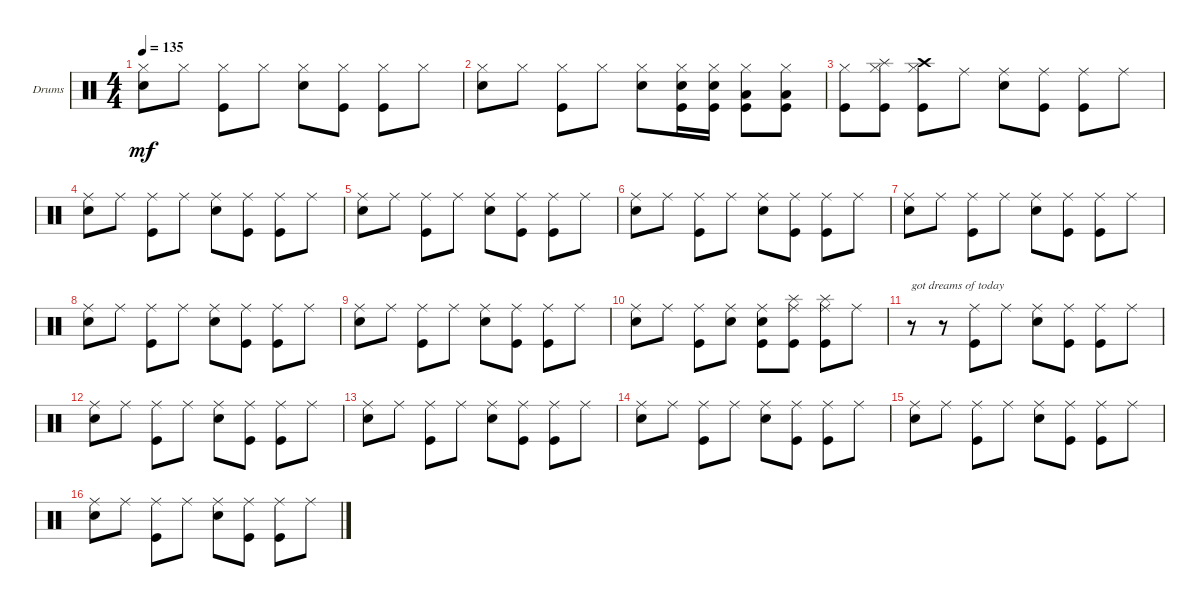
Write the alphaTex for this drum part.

\bracketExtendMode groupsimilarinstruments
\firstSystemTrackNameOrientation horizontal
\otherSystemsTrackNameOrientation horizontal
\track ("Drumkit" "Drums") {instrument percussion}
\staff {score}
\articulation defaults
\ts (4 4)
\tempo 135
\clef neutral
\ks c
("Snare (hit) 2" "Hi-Hat (closed)").8{dy mf} "Hi-Hat (closed)".8 ("Hi-Hat (closed)" "Kick (hit)").8 "Hi-Hat (closed)".8 ("Hi-Hat (closed)" "Snare (hit) 2").8 ("Hi-Hat (closed)" "Kick (hit)").8 ("Hi-Hat (closed)" "Kick (hit)").8 "Hi-Hat (closed)".8 |
("Snare (hit) 2" "Hi-Hat (closed)").8 "Hi-Hat (closed)".8 ("Hi-Hat (closed)" "Kick (hit)").8 "Hi-Hat (closed)".8 ("Hi-Hat (closed)" "Snare (hit) 2").8 ("Hi-Hat (closed)" "Kick (hit)" "Snare (hit) 2").16 ("Hi-Hat (closed)" "Kick (hit)" "Snare (hit) 2").16 ("Hi-Hat (closed)" "Kick (hit)" "Low Tom (hit)").8 ("Hi-Hat (closed)" "Kick (hit)" "Low Tom (hit)").8 |
("Hi-Hat (closed)" "Kick (hit)").8 ("Hi-Hat (closed)" "Kick (hit)" "Splash (hit)").8 ("Hi-Hat (closed)" "Kick (hit)" "Crash high (hit)").8 "Ride (middle)".8 ("Snare (hit) 2" "Ride (middle)").8 ("Kick (hit)" "Ride (middle)").8 ("Kick (hit)" "Ride (middle)").8 "Ride (middle)".8 |
("Snare (hit) 2" "Ride (middle)").8 "Ride (middle)".8 ("Kick (hit)" "Ride (middle)").8 "Ride (middle)".8 ("Snare (hit) 2" "Ride (middle)").8 ("Kick (hit)" "Ride (middle)").8 ("Kick (hit)" "Ride (middle)").8 "Ride (middle)".8 |
("Snare (hit) 2" "Ride (middle)").8 "Ride (middle)".8 ("Kick (hit)" "Ride (middle)").8 "Ride (middle)".8 ("Snare (hit) 2" "Ride (middle)").8 ("Kick (hit)" "Ride (middle)").8 ("Kick (hit)" "Ride (middle)").8 "Ride (middle)".8 |
("Snare (hit) 2" "Ride (middle)").8 "Ride (middle)".8 ("Kick (hit)" "Ride (middle)").8 "Ride (middle)".8 ("Snare (hit) 2" "Ride (middle)").8 ("Kick (hit)" "Ride (middle)").8 ("Kick (hit)" "Ride (middle)").8 "Ride (middle)".8 |
("Snare (hit) 2" "Ride (middle)").8 "Ride (middle)".8 ("Kick (hit)" "Ride (middle)").8 "Ride (middle)".8 ("Snare (hit) 2" "Ride (middle)").8 ("Kick (hit)" "Ride (middle)").8 ("Kick (hit)" "Ride (middle)").8 "Ride (middle)".8 |
("Snare (hit) 2" "Ride (middle)").8 "Ride (middle)".8 ("Kick (hit)" "Ride (middle)").8 "Ride (middle)".8 ("Snare (hit) 2" "Ride (middle)").8 ("Kick (hit)" "Ride (middle)").8 ("Kick (hit)" "Ride (middle)").8 "Ride (middle)".8 |
("Snare (hit) 2" "Ride (middle)").8 "Ride (middle)".8 ("Kick (hit)" "Ride (middle)").8 "Ride (middle)".8 ("Snare (hit) 2" "Ride (middle)").8 ("Kick (hit)" "Ride (middle)").8 ("Kick (hit)" "Ride (middle)").8 "Ride (middle)".8 |
("Snare (hit) 2" "Ride (middle)").8 "Ride (middle)".8 ("Kick (hit)" "Ride (middle)").8 ("Snare (hit) 2" "Ride (middle)").8 ("Snare (hit) 2" "Ride (middle)" "Kick (hit)").8 ("Ride (middle)" "Kick (hit)" "Splash (hit)").8 ("Ride (middle)" "Kick (hit)" "Splash (hit)").8 "Ride (middle)".8 |
r.8{txt "got dreams of today"} r.8 ("Kick (hit)" "Ride (middle)").8 "Ride (middle)".8 ("Snare (hit) 2" "Ride (middle)").8 ("Kick (hit)" "Ride (middle)").8 ("Kick (hit)" "Ride (middle)").8 "Ride (middle)".8 |
("Snare (hit) 2" "Ride (middle)").8 "Ride (middle)".8 ("Kick (hit)" "Ride (middle)").8 "Ride (middle)".8 ("Snare (hit) 2" "Ride (middle)").8 ("Kick (hit)" "Ride (middle)").8 ("Kick (hit)" "Ride (middle)").8 "Ride (middle)".8 |
("Snare (hit) 2" "Ride (middle)").8 "Ride (middle)".8 ("Kick (hit)" "Ride (middle)").8 "Ride (middle)".8 ("Snare (hit) 2" "Ride (middle)").8 ("Kick (hit)" "Ride (middle)").8 ("Kick (hit)" "Ride (middle)").8 "Ride (middle)".8 |
("Snare (hit) 2" "Ride (middle)").8 "Ride (middle)".8 ("Kick (hit)" "Ride (middle)").8 "Ride (middle)".8 ("Snare (hit) 2" "Ride (middle)").8 ("Kick (hit)" "Ride (middle)").8 ("Kick (hit)" "Ride (middle)").8 "Ride (middle)".8 |
("Snare (hit) 2" "Ride (middle)").8 "Ride (middle)".8 ("Kick (hit)" "Ride (middle)").8 "Ride (middle)".8 ("Snare (hit) 2" "Ride (middle)").8 ("Kick (hit)" "Ride (middle)").8 ("Kick (hit)" "Ride (middle)").8 "Ride (middle)".8 |
("Snare (hit) 2" "Ride (middle)").8 "Ride (middle)".8 ("Kick (hit)" "Ride (middle)").8 "Ride (middle)".8 ("Snare (hit) 2" "Ride (middle)").8 ("Kick (hit)" "Ride (middle)").8 ("Kick (hit)" "Ride (middle)").8 "Ride (middle)".8
